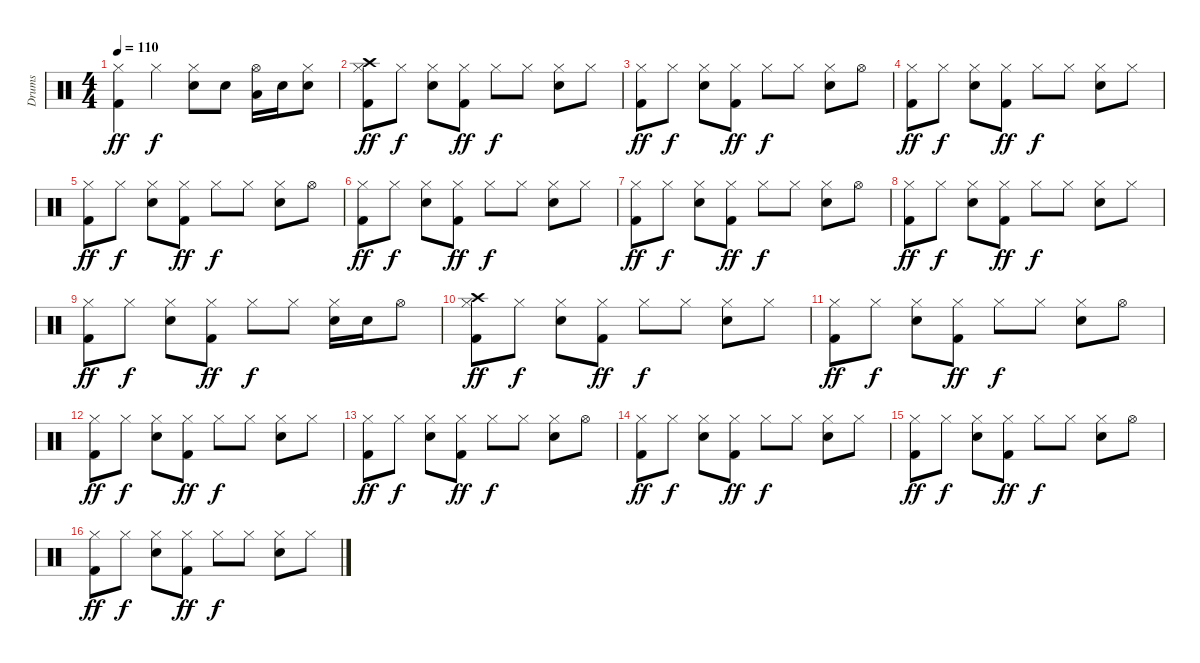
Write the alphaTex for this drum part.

\track ("Drums" "Drums") {instrument percussion}
\staff {score}
\articulation defaults
\ts (4 4)
\tempo 110
\clef neutral
\ks c
("Kick (hit) 2" "Hi-Hat (closed)").4{dy ff} "Hi-Hat (closed)".4{dy f} ("Snare (hit) 2" "Hi-Hat (closed)").8 "Snare (hit) 2".8 ("Low Tom (hit)" "Hi-Hat (open)").16 "Snare (hit) 2".16 ("Snare (hit) 2" "Hi-Hat (closed)").8 |
("Kick (hit) 2" "Hi-Hat (closed)" "Crash high (hit)").8{dy ff} "Hi-Hat (closed)".8{dy f} ("Snare (hit) 2" "Hi-Hat (closed)").8 ("Kick (hit) 2" "Hi-Hat (closed)").8{dy ff} "Hi-Hat (closed)".8{dy f} "Hi-Hat (closed)".8 ("Snare (hit) 2" "Hi-Hat (closed)").8 "Hi-Hat (closed)".8 |
("Kick (hit) 2" "Hi-Hat (closed)").8{dy ff} "Hi-Hat (closed)".8{dy f} ("Snare (hit) 2" "Hi-Hat (closed)").8 ("Kick (hit) 2" "Hi-Hat (closed)").8{dy ff} "Hi-Hat (closed)".8{dy f} "Hi-Hat (closed)".8 ("Snare (hit) 2" "Hi-Hat (closed)").8 "Hi-Hat (open)".8 |
("Kick (hit) 2" "Hi-Hat (closed)").8{dy ff} "Hi-Hat (closed)".8{dy f} ("Snare (hit) 2" "Hi-Hat (closed)").8 ("Kick (hit) 2" "Hi-Hat (closed)").8{dy ff} "Hi-Hat (closed)".8{dy f} "Hi-Hat (closed)".8 ("Snare (hit) 2" "Hi-Hat (closed)").8 "Hi-Hat (closed)".8 |
("Kick (hit) 2" "Hi-Hat (closed)").8{dy ff} "Hi-Hat (closed)".8{dy f} ("Snare (hit) 2" "Hi-Hat (closed)").8 ("Kick (hit) 2" "Hi-Hat (closed)").8{dy ff} "Hi-Hat (closed)".8{dy f} "Hi-Hat (closed)".8 ("Snare (hit) 2" "Hi-Hat (closed)").8 "Hi-Hat (open)".8 |
("Kick (hit) 2" "Hi-Hat (closed)").8{dy ff} "Hi-Hat (closed)".8{dy f} ("Snare (hit) 2" "Hi-Hat (closed)").8 ("Kick (hit) 2" "Hi-Hat (closed)").8{dy ff} "Hi-Hat (closed)".8{dy f} "Hi-Hat (closed)".8 ("Snare (hit) 2" "Hi-Hat (closed)").8 "Hi-Hat (closed)".8 |
("Kick (hit) 2" "Hi-Hat (closed)").8{dy ff} "Hi-Hat (closed)".8{dy f} ("Snare (hit) 2" "Hi-Hat (closed)").8 ("Kick (hit) 2" "Hi-Hat (closed)").8{dy ff} "Hi-Hat (closed)".8{dy f} "Hi-Hat (closed)".8 ("Snare (hit) 2" "Hi-Hat (closed)").8 "Hi-Hat (open)".8 |
("Kick (hit) 2" "Hi-Hat (closed)").8{dy ff} "Hi-Hat (closed)".8{dy f} ("Snare (hit) 2" "Hi-Hat (closed)").8 ("Kick (hit) 2" "Hi-Hat (closed)").8{dy ff} "Hi-Hat (closed)".8{dy f} "Hi-Hat (closed)".8 ("Snare (hit) 2" "Hi-Hat (closed)").8 "Hi-Hat (closed)".8 |
("Kick (hit) 2" "Hi-Hat (closed)").8{dy ff} "Hi-Hat (closed)".8{dy f} ("Snare (hit) 2" "Hi-Hat (closed)").8 ("Kick (hit) 2" "Hi-Hat (closed)").8{dy ff} "Hi-Hat (closed)".8{dy f} "Hi-Hat (closed)".8 ("Snare (hit) 2" "Hi-Hat (closed)").16 "Snare (hit) 2".16 "Hi-Hat (open)".8 |
("Kick (hit) 2" "Hi-Hat (closed)" "Crash high (hit)").8{dy ff} "Hi-Hat (closed)".8{dy f} ("Snare (hit) 2" "Hi-Hat (closed)").8 ("Kick (hit) 2" "Hi-Hat (closed)").8{dy ff} "Hi-Hat (closed)".8{dy f} "Hi-Hat (closed)".8 ("Snare (hit) 2" "Hi-Hat (closed)").8 "Hi-Hat (closed)".8 |
("Kick (hit) 2" "Hi-Hat (closed)").8{dy ff} "Hi-Hat (closed)".8{dy f} ("Snare (hit) 2" "Hi-Hat (closed)").8 ("Kick (hit) 2" "Hi-Hat (closed)").8{dy ff} "Hi-Hat (closed)".8{dy f} "Hi-Hat (closed)".8 ("Snare (hit) 2" "Hi-Hat (closed)").8 "Hi-Hat (open)".8 |
("Kick (hit) 2" "Hi-Hat (closed)").8{dy ff} "Hi-Hat (closed)".8{dy f} ("Snare (hit) 2" "Hi-Hat (closed)").8 ("Kick (hit) 2" "Hi-Hat (closed)").8{dy ff} "Hi-Hat (closed)".8{dy f} "Hi-Hat (closed)".8 ("Snare (hit) 2" "Hi-Hat (closed)").8 "Hi-Hat (closed)".8 |
("Kick (hit) 2" "Hi-Hat (closed)").8{dy ff} "Hi-Hat (closed)".8{dy f} ("Snare (hit) 2" "Hi-Hat (closed)").8 ("Kick (hit) 2" "Hi-Hat (closed)").8{dy ff} "Hi-Hat (closed)".8{dy f} "Hi-Hat (closed)".8 ("Snare (hit) 2" "Hi-Hat (closed)").8 "Hi-Hat (open)".8 |
("Kick (hit) 2" "Hi-Hat (closed)").8{dy ff} "Hi-Hat (closed)".8{dy f} ("Snare (hit) 2" "Hi-Hat (closed)").8 ("Kick (hit) 2" "Hi-Hat (closed)").8{dy ff} "Hi-Hat (closed)".8{dy f} "Hi-Hat (closed)".8 ("Snare (hit) 2" "Hi-Hat (closed)").8 "Hi-Hat (closed)".8 |
("Kick (hit) 2" "Hi-Hat (closed)").8{dy ff} "Hi-Hat (closed)".8{dy f} ("Snare (hit) 2" "Hi-Hat (closed)").8 ("Kick (hit) 2" "Hi-Hat (closed)").8{dy ff} "Hi-Hat (closed)".8{dy f} "Hi-Hat (closed)".8 ("Snare (hit) 2" "Hi-Hat (closed)").8 "Hi-Hat (open)".8 |
("Kick (hit) 2" "Hi-Hat (closed)").8{dy ff} "Hi-Hat (closed)".8{dy f} ("Snare (hit) 2" "Hi-Hat (closed)").8 ("Kick (hit) 2" "Hi-Hat (closed)").8{dy ff} "Hi-Hat (closed)".8{dy f} "Hi-Hat (closed)".8 ("Snare (hit) 2" "Hi-Hat (closed)").8 "Hi-Hat (closed)".8
